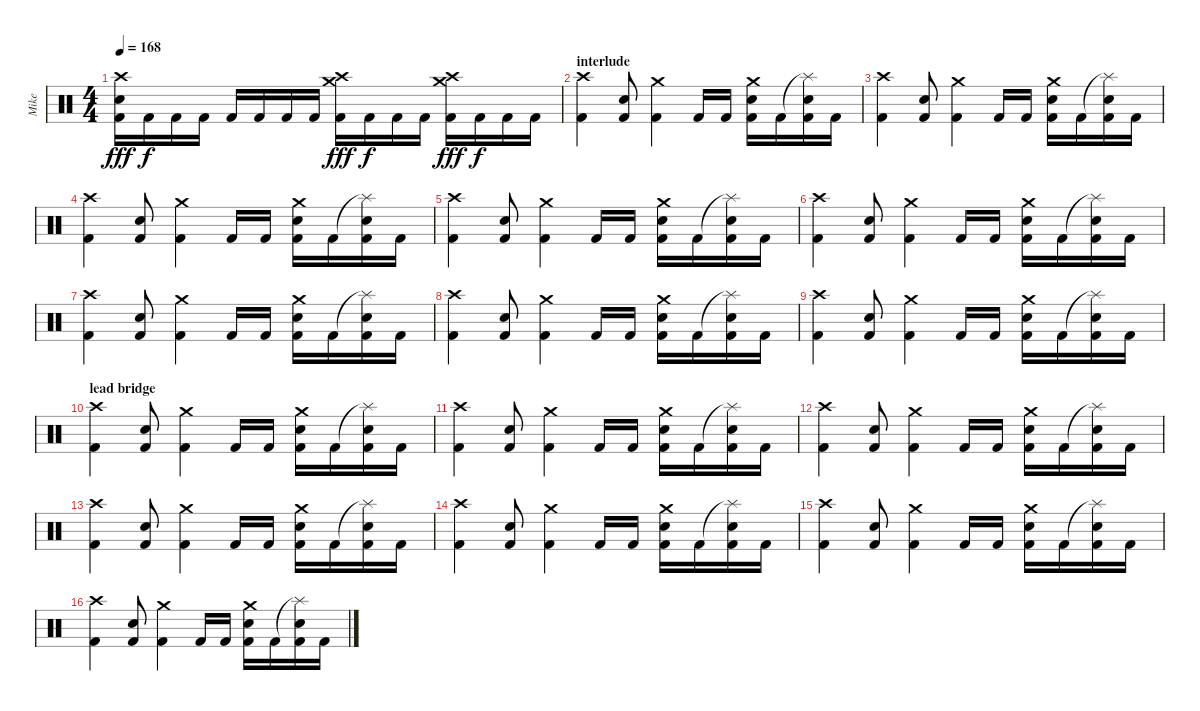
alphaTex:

\track ("Mike" "Mike") {instrument percussion}
\staff {score}
\articulation defaults
\ts (4 4)
\tempo 168
\clef neutral
\ks c
("Crash high (hit)" "Snare (hit) 2" "Kick (hit) 2").16{dy fff} "Kick (hit) 2".16{dy f} "Kick (hit) 2".16 "Kick (hit) 2".16 "Kick (hit) 2".16 "Kick (hit) 2".16 "Kick (hit) 2".16 "Kick (hit) 2".16 ("Crash medium (hit)" "Crash high (hit)" "Kick (hit) 2").16{dy fff} "Kick (hit) 2".16{dy f} "Kick (hit) 2".16 "Kick (hit) 2".16 ("Crash high (hit)" "Crash medium (hit)" "Kick (hit) 2").16{dy fff} "Kick (hit) 2".16{dy f} "Kick (hit) 2".16 "Kick (hit) 2".16 |
\section ("" "interlude")
("Crash high (hit)" "Kick (hit) 2").4 ("Snare (hit) 2" "Kick (hit) 2").8 ("Crash medium (hit)" "Kick (hit) 2").4 "Kick (hit) 2".16 "Kick (hit) 2".16 ("Crash medium (hit)" "Snare (hit) 2" "Kick (hit) 2").16 "Kick (hit) 2".16 ("Splash (hit)"{t} "Snare (hit) 2" "Kick (hit) 2").16 "Kick (hit) 2".16 |
("Crash high (hit)" "Kick (hit) 2").4 ("Snare (hit) 2" "Kick (hit) 2").8 ("Crash medium (hit)" "Kick (hit) 2").4 "Kick (hit) 2".16 "Kick (hit) 2".16 ("Crash medium (hit)" "Snare (hit) 2" "Kick (hit) 2").16 "Kick (hit) 2".16 ("Splash (hit)"{t} "Snare (hit) 2" "Kick (hit) 2").16 "Kick (hit) 2".16 |
("Crash high (hit)" "Kick (hit) 2").4 ("Snare (hit) 2" "Kick (hit) 2").8 ("Crash medium (hit)" "Kick (hit) 2").4 "Kick (hit) 2".16 "Kick (hit) 2".16 ("Crash medium (hit)" "Snare (hit) 2" "Kick (hit) 2").16 "Kick (hit) 2".16 ("Splash (hit)"{t} "Snare (hit) 2" "Kick (hit) 2").16 "Kick (hit) 2".16 |
("Crash high (hit)" "Kick (hit) 2").4 ("Snare (hit) 2" "Kick (hit) 2").8 ("Crash medium (hit)" "Kick (hit) 2").4 "Kick (hit) 2".16 "Kick (hit) 2".16 ("Crash medium (hit)" "Snare (hit) 2" "Kick (hit) 2").16 "Kick (hit) 2".16 ("Splash (hit)"{t} "Snare (hit) 2" "Kick (hit) 2").16 "Kick (hit) 2".16 |
("Crash high (hit)" "Kick (hit) 2").4 ("Snare (hit) 2" "Kick (hit) 2").8 ("Crash medium (hit)" "Kick (hit) 2").4 "Kick (hit) 2".16 "Kick (hit) 2".16 ("Crash medium (hit)" "Snare (hit) 2" "Kick (hit) 2").16 "Kick (hit) 2".16 ("Splash (hit)"{t} "Snare (hit) 2" "Kick (hit) 2").16 "Kick (hit) 2".16 |
("Crash high (hit)" "Kick (hit) 2").4 ("Snare (hit) 2" "Kick (hit) 2").8 ("Crash medium (hit)" "Kick (hit) 2").4 "Kick (hit) 2".16 "Kick (hit) 2".16 ("Crash medium (hit)" "Snare (hit) 2" "Kick (hit) 2").16 "Kick (hit) 2".16 ("Splash (hit)"{t} "Snare (hit) 2" "Kick (hit) 2").16 "Kick (hit) 2".16 |
("Crash high (hit)" "Kick (hit) 2").4 ("Snare (hit) 2" "Kick (hit) 2").8 ("Crash medium (hit)" "Kick (hit) 2").4 "Kick (hit) 2".16 "Kick (hit) 2".16 ("Crash medium (hit)" "Snare (hit) 2" "Kick (hit) 2").16 "Kick (hit) 2".16 ("Splash (hit)"{t} "Snare (hit) 2" "Kick (hit) 2").16 "Kick (hit) 2".16 |
("Crash high (hit)" "Kick (hit) 2").4 ("Snare (hit) 2" "Kick (hit) 2").8 ("Crash medium (hit)" "Kick (hit) 2").4 "Kick (hit) 2".16 "Kick (hit) 2".16 ("Crash medium (hit)" "Snare (hit) 2" "Kick (hit) 2").16 "Kick (hit) 2".16 ("Splash (hit)"{t} "Snare (hit) 2" "Kick (hit) 2").16 "Kick (hit) 2".16 |
\section ("" "lead bridge")
("Crash high (hit)" "Kick (hit) 2").4 ("Snare (hit) 2" "Kick (hit) 2").8 ("Crash medium (hit)" "Kick (hit) 2").4 "Kick (hit) 2".16 "Kick (hit) 2".16 ("Crash medium (hit)" "Snare (hit) 2" "Kick (hit) 2").16 "Kick (hit) 2".16 ("Splash (hit)"{t} "Snare (hit) 2" "Kick (hit) 2").16 "Kick (hit) 2".16 |
("Crash high (hit)" "Kick (hit) 2").4 ("Snare (hit) 2" "Kick (hit) 2").8 ("Crash medium (hit)" "Kick (hit) 2").4 "Kick (hit) 2".16 "Kick (hit) 2".16 ("Crash medium (hit)" "Snare (hit) 2" "Kick (hit) 2").16 "Kick (hit) 2".16 ("Splash (hit)"{t} "Snare (hit) 2" "Kick (hit) 2").16 "Kick (hit) 2".16 |
("Crash high (hit)" "Kick (hit) 2").4 ("Snare (hit) 2" "Kick (hit) 2").8 ("Crash medium (hit)" "Kick (hit) 2").4 "Kick (hit) 2".16 "Kick (hit) 2".16 ("Crash medium (hit)" "Snare (hit) 2" "Kick (hit) 2").16 "Kick (hit) 2".16 ("Splash (hit)"{t} "Snare (hit) 2" "Kick (hit) 2").16 "Kick (hit) 2".16 |
("Crash high (hit)" "Kick (hit) 2").4 ("Snare (hit) 2" "Kick (hit) 2").8 ("Crash medium (hit)" "Kick (hit) 2").4 "Kick (hit) 2".16 "Kick (hit) 2".16 ("Crash medium (hit)" "Snare (hit) 2" "Kick (hit) 2").16 "Kick (hit) 2".16 ("Splash (hit)"{t} "Snare (hit) 2" "Kick (hit) 2").16 "Kick (hit) 2".16 |
("Crash high (hit)" "Kick (hit) 2").4 ("Snare (hit) 2" "Kick (hit) 2").8 ("Crash medium (hit)" "Kick (hit) 2").4 "Kick (hit) 2".16 "Kick (hit) 2".16 ("Crash medium (hit)" "Snare (hit) 2" "Kick (hit) 2").16 "Kick (hit) 2".16 ("Splash (hit)"{t} "Snare (hit) 2" "Kick (hit) 2").16 "Kick (hit) 2".16 |
("Crash high (hit)" "Kick (hit) 2").4 ("Snare (hit) 2" "Kick (hit) 2").8 ("Crash medium (hit)" "Kick (hit) 2").4 "Kick (hit) 2".16 "Kick (hit) 2".16 ("Crash medium (hit)" "Snare (hit) 2" "Kick (hit) 2").16 "Kick (hit) 2".16 ("Splash (hit)"{t} "Snare (hit) 2" "Kick (hit) 2").16 "Kick (hit) 2".16 |
("Crash high (hit)" "Kick (hit) 2").4 ("Snare (hit) 2" "Kick (hit) 2").8 ("Crash medium (hit)" "Kick (hit) 2").4 "Kick (hit) 2".16 "Kick (hit) 2".16 ("Crash medium (hit)" "Snare (hit) 2" "Kick (hit) 2").16 "Kick (hit) 2".16 ("Splash (hit)"{t} "Snare (hit) 2" "Kick (hit) 2").16 "Kick (hit) 2".16
